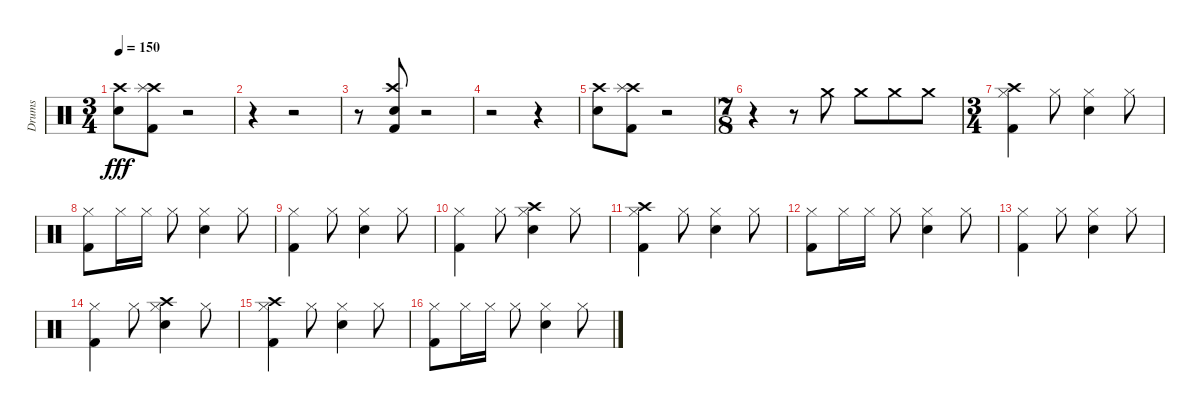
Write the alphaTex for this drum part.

\track ("Drums" "Drums") {instrument percussion}
\staff {score}
\articulation defaults
\ts (3 4)
\tempo 150
\clef neutral
\ks c
("Snare (hit) 2" "Crash high (hit)").8{dy fff} ("Crash high (hit)" "Kick (hit) 2" "Splash (hit)").8 r.2 |
r.4 r.2 |
r.8 ("Kick (hit) 2" "Crash high (hit)" "Snare (hit) 2").8 r.2 |
r.2 r.4 |
("Snare (hit) 2" "Crash high (hit)").8 ("Crash high (hit)" "Kick (hit) 2" "Splash (hit)").8 r.2 |
\ts (7 8)
r.4 r.8 "Crash medium (hit)".8 "Crash medium (hit)".8 "Crash medium (hit)".8 "Crash medium (hit)".8 |
\ts (3 4)
("Hi-Hat (closed)" "Kick (hit) 2" "Crash high (hit)").4 "Hi-Hat (closed)".8 ("Hi-Hat (closed)" "Snare (hit) 2").4 "Hi-Hat (closed)".8 |
("Hi-Hat (closed)" "Kick (hit) 2").8 "Hi-Hat (closed)".16 "Hi-Hat (closed)".16 "Hi-Hat (closed)".8 ("Hi-Hat (closed)" "Snare (hit) 2").4 "Hi-Hat (closed)".8 |
("Hi-Hat (closed)" "Kick (hit) 2").4 "Hi-Hat (closed)".8 ("Hi-Hat (closed)" "Snare (hit) 2").4 "Hi-Hat (closed)".8 |
("Hi-Hat (closed)" "Kick (hit) 2").4 "Hi-Hat (closed)".8 ("Hi-Hat (closed)" "Snare (hit) 2" "Crash high (hit)").4 "Hi-Hat (closed)".8 |
("Hi-Hat (closed)" "Kick (hit) 2" "Crash high (hit)").4 "Hi-Hat (closed)".8 ("Hi-Hat (closed)" "Snare (hit) 2").4 "Hi-Hat (closed)".8 |
("Hi-Hat (closed)" "Kick (hit) 2").8 "Hi-Hat (closed)".16 "Hi-Hat (closed)".16 "Hi-Hat (closed)".8 ("Hi-Hat (closed)" "Snare (hit) 2").4 "Hi-Hat (closed)".8 |
("Hi-Hat (closed)" "Kick (hit) 2").4 "Hi-Hat (closed)".8 ("Hi-Hat (closed)" "Snare (hit) 2").4 "Hi-Hat (closed)".8 |
("Hi-Hat (closed)" "Kick (hit) 2").4 "Hi-Hat (closed)".8 ("Hi-Hat (closed)" "Snare (hit) 2" "Crash high (hit)").4 "Hi-Hat (closed)".8 |
("Hi-Hat (closed)" "Kick (hit) 2" "Crash high (hit)").4 "Hi-Hat (closed)".8 ("Hi-Hat (closed)" "Snare (hit) 2").4 "Hi-Hat (closed)".8 |
("Hi-Hat (closed)" "Kick (hit) 2").8 "Hi-Hat (closed)".16 "Hi-Hat (closed)".16 "Hi-Hat (closed)".8 ("Hi-Hat (closed)" "Snare (hit) 2").4 "Hi-Hat (closed)".8
